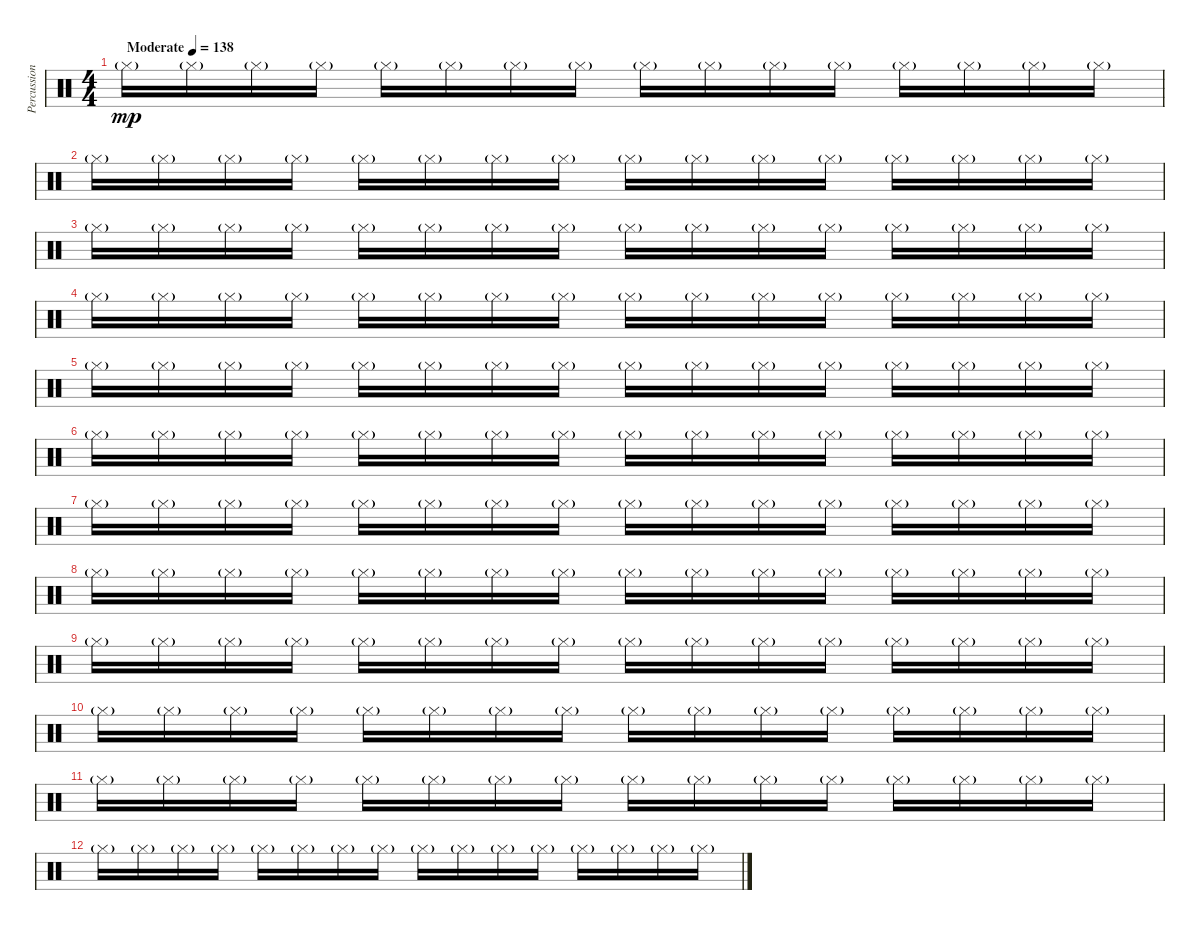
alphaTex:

\track ("Percussion" "Percussion") {instrument percussion}
\staff {score}
\articulation defaults
\ts (4 4)
\tempo (138 "Moderate")
\clef neutral
\ks c "Hi-Hat (closed)"{g}.16{dy mp} "Hi-Hat (closed)"{g}.16 "Hi-Hat (closed)"{g}.16 "Hi-Hat (closed)"{g}.16 "Hi-Hat (closed)"{g}.16 "Hi-Hat (closed)"{g}.16 "Hi-Hat (closed)"{g}.16 "Hi-Hat (closed)"{g}.16 "Hi-Hat (closed)"{g}.16 "Hi-Hat (closed)"{g}.16 "Hi-Hat (closed)"{g}.16 "Hi-Hat (closed)"{g}.16 "Hi-Hat (closed)"{g}.16 "Hi-Hat (closed)"{g}.16 "Hi-Hat (closed)"{g}.16 "Hi-Hat (closed)"{g}.16
|
"Hi-Hat (closed)"{g}.16 "Hi-Hat (closed)"{g}.16 "Hi-Hat (closed)"{g}.16 "Hi-Hat (closed)"{g}.16 "Hi-Hat (closed)"{g}.16 "Hi-Hat (closed)"{g}.16 "Hi-Hat (closed)"{g}.16 "Hi-Hat (closed)"{g}.16 "Hi-Hat (closed)"{g}.16 "Hi-Hat (closed)"{g}.16 "Hi-Hat (closed)"{g}.16 "Hi-Hat (closed)"{g}.16 "Hi-Hat (closed)"{g}.16 "Hi-Hat (closed)"{g}.16 "Hi-Hat (closed)"{g}.16 "Hi-Hat (closed)"{g}.16 |
"Hi-Hat (closed)"{g}.16 "Hi-Hat (closed)"{g}.16 "Hi-Hat (closed)"{g}.16 "Hi-Hat (closed)"{g}.16 "Hi-Hat (closed)"{g}.16 "Hi-Hat (closed)"{g}.16 "Hi-Hat (closed)"{g}.16 "Hi-Hat (closed)"{g}.16 "Hi-Hat (closed)"{g}.16 "Hi-Hat (closed)"{g}.16 "Hi-Hat (closed)"{g}.16 "Hi-Hat (closed)"{g}.16 "Hi-Hat (closed)"{g}.16 "Hi-Hat (closed)"{g}.16 "Hi-Hat (closed)"{g}.16 "Hi-Hat (closed)"{g}.16 |
"Hi-Hat (closed)"{g}.16 "Hi-Hat (closed)"{g}.16 "Hi-Hat (closed)"{g}.16 "Hi-Hat (closed)"{g}.16 "Hi-Hat (closed)"{g}.16 "Hi-Hat (closed)"{g}.16 "Hi-Hat (closed)"{g}.16 "Hi-Hat (closed)"{g}.16 "Hi-Hat (closed)"{g}.16 "Hi-Hat (closed)"{g}.16 "Hi-Hat (closed)"{g}.16 "Hi-Hat (closed)"{g}.16 "Hi-Hat (closed)"{g}.16 "Hi-Hat (closed)"{g}.16 "Hi-Hat (closed)"{g}.16 "Hi-Hat (closed)"{g}.16 |
"Hi-Hat (closed)"{g}.16 "Hi-Hat (closed)"{g}.16 "Hi-Hat (closed)"{g}.16 "Hi-Hat (closed)"{g}.16 "Hi-Hat (closed)"{g}.16 "Hi-Hat (closed)"{g}.16 "Hi-Hat (closed)"{g}.16 "Hi-Hat (closed)"{g}.16 "Hi-Hat (closed)"{g}.16 "Hi-Hat (closed)"{g}.16 "Hi-Hat (closed)"{g}.16 "Hi-Hat (closed)"{g}.16 "Hi-Hat (closed)"{g}.16 "Hi-Hat (closed)"{g}.16 "Hi-Hat (closed)"{g}.16 "Hi-Hat (closed)"{g}.16 |
"Hi-Hat (closed)"{g}.16 "Hi-Hat (closed)"{g}.16 "Hi-Hat (closed)"{g}.16 "Hi-Hat (closed)"{g}.16 "Hi-Hat (closed)"{g}.16 "Hi-Hat (closed)"{g}.16 "Hi-Hat (closed)"{g}.16 "Hi-Hat (closed)"{g}.16 "Hi-Hat (closed)"{g}.16 "Hi-Hat (closed)"{g}.16 "Hi-Hat (closed)"{g}.16 "Hi-Hat (closed)"{g}.16 "Hi-Hat (closed)"{g}.16 "Hi-Hat (closed)"{g}.16 "Hi-Hat (closed)"{g}.16 "Hi-Hat (closed)"{g}.16 |
"Hi-Hat (closed)"{g}.16 "Hi-Hat (closed)"{g}.16 "Hi-Hat (closed)"{g}.16 "Hi-Hat (closed)"{g}.16 "Hi-Hat (closed)"{g}.16 "Hi-Hat (closed)"{g}.16 "Hi-Hat (closed)"{g}.16 "Hi-Hat (closed)"{g}.16 "Hi-Hat (closed)"{g}.16 "Hi-Hat (closed)"{g}.16 "Hi-Hat (closed)"{g}.16 "Hi-Hat (closed)"{g}.16 "Hi-Hat (closed)"{g}.16 "Hi-Hat (closed)"{g}.16 "Hi-Hat (closed)"{g}.16 "Hi-Hat (closed)"{g}.16 |
"Hi-Hat (closed)"{g}.16 "Hi-Hat (closed)"{g}.16 "Hi-Hat (closed)"{g}.16 "Hi-Hat (closed)"{g}.16 "Hi-Hat (closed)"{g}.16 "Hi-Hat (closed)"{g}.16 "Hi-Hat (closed)"{g}.16 "Hi-Hat (closed)"{g}.16 "Hi-Hat (closed)"{g}.16 "Hi-Hat (closed)"{g}.16 "Hi-Hat (closed)"{g}.16 "Hi-Hat (closed)"{g}.16 "Hi-Hat (closed)"{g}.16 "Hi-Hat (closed)"{g}.16 "Hi-Hat (closed)"{g}.16 "Hi-Hat (closed)"{g}.16 |
"Hi-Hat (closed)"{g}.16 "Hi-Hat (closed)"{g}.16 "Hi-Hat (closed)"{g}.16 "Hi-Hat (closed)"{g}.16 "Hi-Hat (closed)"{g}.16 "Hi-Hat (closed)"{g}.16 "Hi-Hat (closed)"{g}.16 "Hi-Hat (closed)"{g}.16 "Hi-Hat (closed)"{g}.16 "Hi-Hat (closed)"{g}.16 "Hi-Hat (closed)"{g}.16 "Hi-Hat (closed)"{g}.16 "Hi-Hat (closed)"{g}.16 "Hi-Hat (closed)"{g}.16 "Hi-Hat (closed)"{g}.16 "Hi-Hat (closed)"{g}.16 |
"Hi-Hat (closed)"{g}.16 "Hi-Hat (closed)"{g}.16 "Hi-Hat (closed)"{g}.16 "Hi-Hat (closed)"{g}.16 "Hi-Hat (closed)"{g}.16 "Hi-Hat (closed)"{g}.16 "Hi-Hat (closed)"{g}.16 "Hi-Hat (closed)"{g}.16 "Hi-Hat (closed)"{g}.16 "Hi-Hat (closed)"{g}.16 "Hi-Hat (closed)"{g}.16 "Hi-Hat (closed)"{g}.16 "Hi-Hat (closed)"{g}.16 "Hi-Hat (closed)"{g}.16 "Hi-Hat (closed)"{g}.16 "Hi-Hat (closed)"{g}.16 |
"Hi-Hat (closed)"{g}.16 "Hi-Hat (closed)"{g}.16 "Hi-Hat (closed)"{g}.16 "Hi-Hat (closed)"{g}.16 "Hi-Hat (closed)"{g}.16 "Hi-Hat (closed)"{g}.16 "Hi-Hat (closed)"{g}.16 "Hi-Hat (closed)"{g}.16 "Hi-Hat (closed)"{g}.16 "Hi-Hat (closed)"{g}.16 "Hi-Hat (closed)"{g}.16 "Hi-Hat (closed)"{g}.16 "Hi-Hat (closed)"{g}.16 "Hi-Hat (closed)"{g}.16 "Hi-Hat (closed)"{g}.16 "Hi-Hat (closed)"{g}.16 |
"Hi-Hat (closed)"{g}.16 "Hi-Hat (closed)"{g}.16 "Hi-Hat (closed)"{g}.16 "Hi-Hat (closed)"{g}.16 "Hi-Hat (closed)"{g}.16 "Hi-Hat (closed)"{g}.16 "Hi-Hat (closed)"{g}.16 "Hi-Hat (closed)"{g}.16 "Hi-Hat (closed)"{g}.16 "Hi-Hat (closed)"{g}.16 "Hi-Hat (closed)"{g}.16 "Hi-Hat (closed)"{g}.16 "Hi-Hat (closed)"{g}.16 "Hi-Hat (closed)"{g}.16 "Hi-Hat (closed)"{g}.16 "Hi-Hat (closed)"{g}.16
